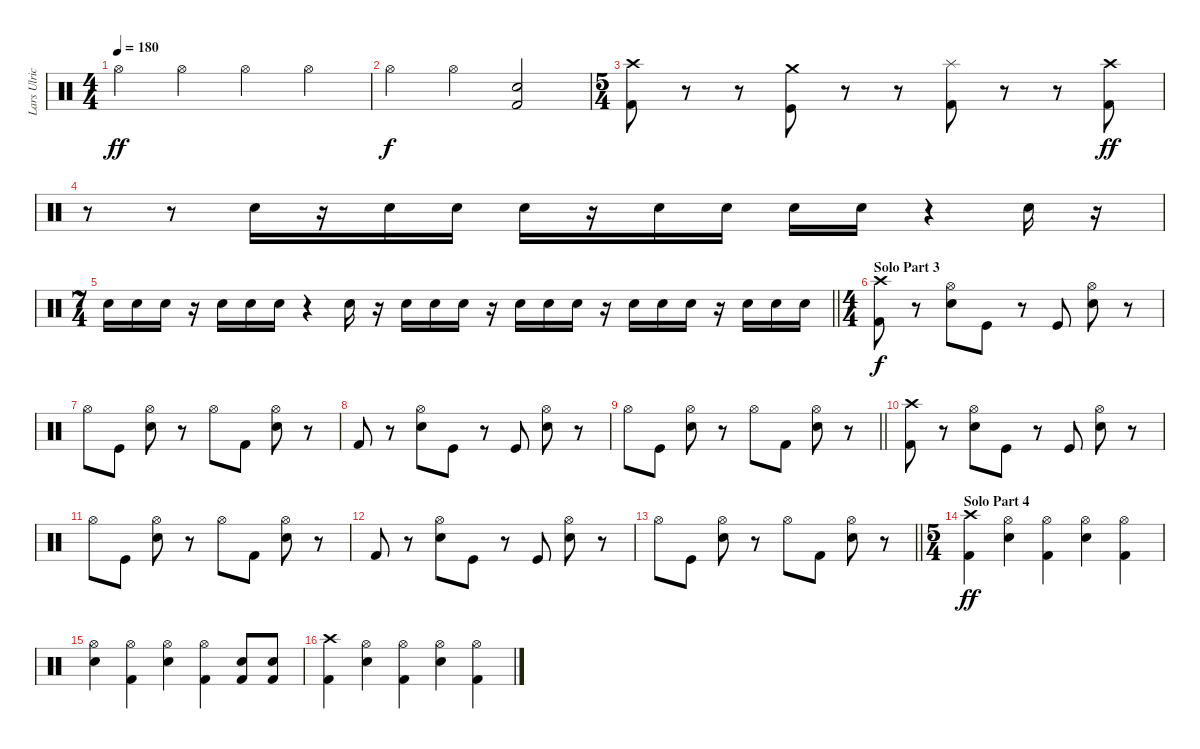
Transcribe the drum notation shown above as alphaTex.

\track ("Lars Ulrich" "Lars Ulric") {instrument percussion}
\staff {score}
\articulation defaults
\ts (4 4)
\tempo 180
\clef neutral
\ks c "Hi-Hat (open)".4{dy ff} "Hi-Hat (open)".4 "Hi-Hat (open)".4 "Hi-Hat (open)".4
|
"Hi-Hat (open)".4{dy f} "Hi-Hat (open)".4 ("Electric Snare (hit)" "Kick (hit) 2").2 |
\ts (5 4)
("Crash high (hit)" "Kick (hit) 2").8 r.8 r.8 ("Crash medium (hit)" "Kick (hit)").8 r.8 r.8 ("Splash (hit)" "Kick (hit) 2").8 r.8 r.8 ("Crash high (hit)" "Kick (hit) 2").8{dy ff} |
r.8 r.8 "Electric Snare (hit)".16 r.16 "Electric Snare (hit)".16 "Electric Snare (hit)".16 "Electric Snare (hit)".16 r.16 "Electric Snare (hit)".16 "Electric Snare (hit)".16 "Electric Snare (hit)".16 "Electric Snare (hit)".16 r.4 "Electric Snare (hit)".16 r.16 |
\ts (7 4)
\barLineRight lightlight "Electric Snare (hit)".16 "Electric Snare (hit)".16 "Electric Snare (hit)".16
r.16 "Electric Snare (hit)".16 "Electric Snare (hit)".16 "Electric Snare (hit)".16 r.4 "Electric Snare (hit)".16 r.16 "Electric Snare (hit)".16 "Electric Snare (hit)".16 "Electric Snare (hit)".16 r.16 "Electric Snare (hit)".16 "Electric Snare (hit)".16 "Electric Snare (hit)".16 r.16 "Electric Snare (hit)".16 "Electric Snare (hit)".16 "Electric Snare (hit)".16 r.16 "Electric Snare (hit)".16 "Electric Snare (hit)".16 "Electric Snare (hit)".16 |
\ts (4 4)
\section ("" "Solo Part 3")
("Crash high (hit)" "Kick (hit) 2").8{dy f} r.8 ("Hi-Hat (open)" "Electric Snare (hit)").8 "Kick (hit)".8 r.8 "Kick (hit)".8 ("Hi-Hat (open)" "Electric Snare (hit)").8 r.8 |
"Hi-Hat (open)".8 "Kick (hit)".8 ("Hi-Hat (open)" "Electric Snare (hit)").8 r.8 "Hi-Hat (open)".8 "Kick (hit) 2".8 ("Hi-Hat (open)" "Electric Snare (hit)").8 r.8 |
"Kick (hit) 2".8 r.8 ("Hi-Hat (open)" "Electric Snare (hit)").8 "Kick (hit)".8 r.8 "Kick (hit)".8 ("Hi-Hat (open)" "Electric Snare (hit)").8 r.8 |
\barLineRight lightlight "Hi-Hat (open)".8 "Kick (hit)".8
("Hi-Hat (open)" "Electric Snare (hit)").8 r.8 "Hi-Hat (open)".8 "Kick (hit) 2".8 ("Hi-Hat (open)" "Electric Snare (hit)").8 r.8 |
("Crash high (hit)" "Kick (hit) 2").8 r.8 ("Hi-Hat (open)" "Electric Snare (hit)").8 "Kick (hit)".8 r.8 "Kick (hit)".8 ("Hi-Hat (open)" "Electric Snare (hit)").8 r.8 |
"Hi-Hat (open)".8 "Kick (hit)".8 ("Hi-Hat (open)" "Electric Snare (hit)").8 r.8 "Hi-Hat (open)".8 "Kick (hit) 2".8 ("Hi-Hat (open)" "Electric Snare (hit)").8 r.8 |
"Kick (hit) 2".8 r.8 ("Hi-Hat (open)" "Electric Snare (hit)").8 "Kick (hit)".8 r.8 "Kick (hit)".8 ("Hi-Hat (open)" "Electric Snare (hit)").8 r.8 |
\barLineRight lightlight "Hi-Hat (open)".8 "Kick (hit)".8
("Hi-Hat (open)" "Electric Snare (hit)").8 r.8 "Hi-Hat (open)".8 "Kick (hit) 2".8 ("Hi-Hat (open)" "Electric Snare (hit)").8 r.8 |
\ts (5 4)
\section ("" "Solo Part 4")
("Crash high (hit)" "Kick (hit) 2").4{dy ff} ("Hi-Hat (open)" "Electric Snare (hit)").4 ("Hi-Hat (open)" "Kick (hit) 2").4 ("Hi-Hat (open)" "Electric Snare (hit)").4 ("Hi-Hat (open)" "Kick (hit) 2").4 |
("Hi-Hat (open)" "Electric Snare (hit)").4 ("Hi-Hat (open)" "Kick (hit) 2").4 ("Hi-Hat (open)" "Electric Snare (hit)").4 ("Hi-Hat (open)" "Kick (hit) 2").4 ("Electric Snare (hit)" "Kick (hit) 2").8 ("Electric Snare (hit)" "Kick (hit) 2").8 |
("Crash high (hit)" "Kick (hit) 2").4 ("Hi-Hat (open)" "Electric Snare (hit)").4 ("Hi-Hat (open)" "Kick (hit) 2").4 ("Hi-Hat (open)" "Electric Snare (hit)").4 ("Hi-Hat (open)" "Kick (hit) 2").4
